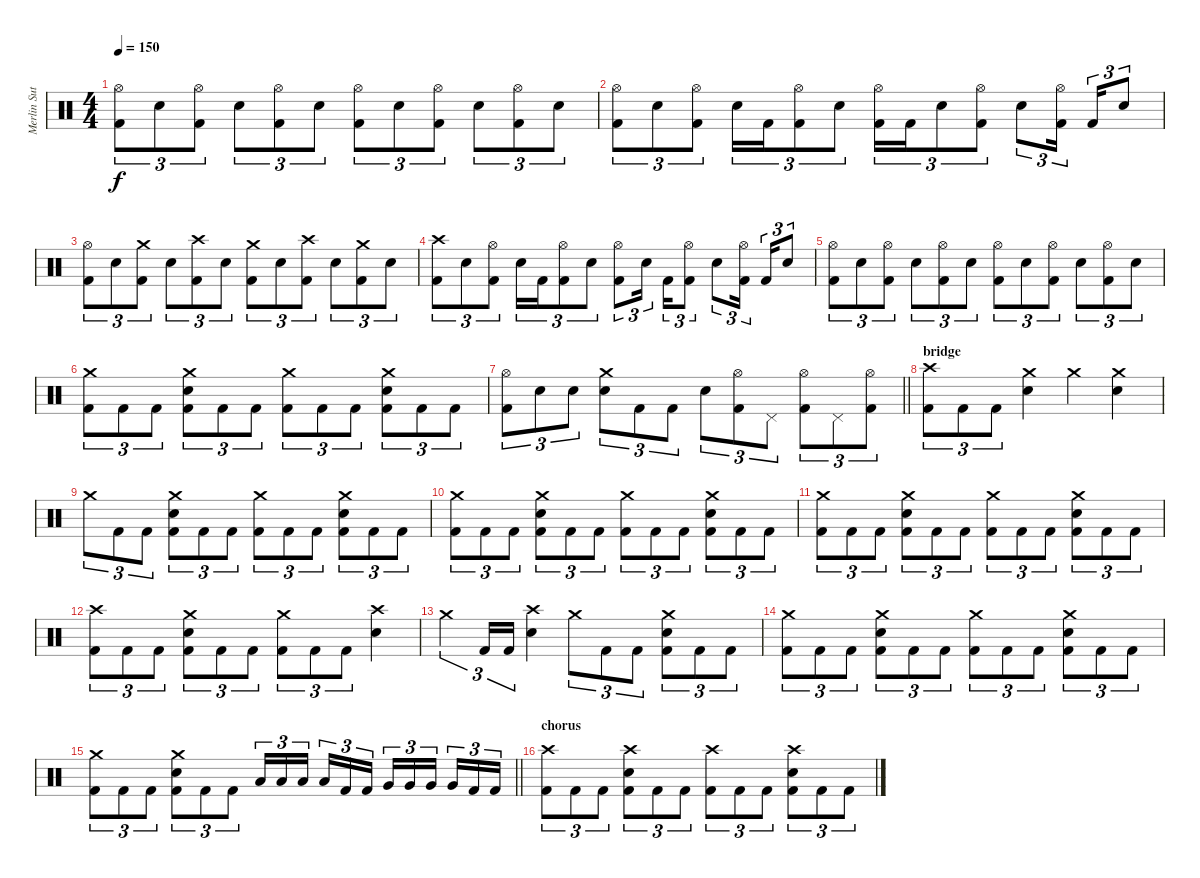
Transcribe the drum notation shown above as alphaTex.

\track ("Merlin Sutter" "Merlin Sut") {instrument percussion}
\staff {score}
\articulation defaults
\ts (4 4)
\tempo 150
\clef neutral
\ks c
("Hi-Hat (open)" "Kick (hit) 2").8{tu (3 2) dy f} "Snare (hit) 2".8{tu (3 2)} ("Hi-Hat (open)" "Kick (hit) 2").8{tu (3 2)} "Snare (hit) 2".8{tu (3 2)} ("Hi-Hat (open)" "Kick (hit) 2").8{tu (3 2)} "Snare (hit) 2".8{tu (3 2)} ("Hi-Hat (open)" "Kick (hit) 2").8{tu (3 2)} "Snare (hit) 2".8{tu (3 2)} ("Hi-Hat (open)" "Kick (hit) 2").8{tu (3 2)} "Snare (hit) 2".8{tu (3 2)} ("Hi-Hat (open)" "Kick (hit) 2").8{tu (3 2)} "Snare (hit) 2".8{tu (3 2)} |
("Hi-Hat (open)" "Kick (hit) 2").8{tu (3 2)} "Snare (hit) 2".8{tu (3 2)} ("Hi-Hat (open)" "Kick (hit) 2").8{tu (3 2)} "Snare (hit) 2".16{tu (3 2)} "Kick (hit) 2".16{tu (3 2)} ("Hi-Hat (open)" "Kick (hit) 2").8{tu (3 2)} "Snare (hit) 2".8{tu (3 2)} ("Hi-Hat (open)" "Kick (hit) 2").16{tu (3 2)} "Kick (hit) 2".16{tu (3 2)} "Snare (hit) 2".8{tu (3 2)} ("Hi-Hat (open)" "Kick (hit) 2").8{tu (3 2)} "Snare (hit) 2".8{tu (3 2)} ("Hi-Hat (open)" "Kick (hit) 2").16{tu (3 2) beam splitsecondary} "Kick (hit) 2".16{tu (3 2)} "Snare (hit) 2".8{tu (3 2)} |
("Hi-Hat (open)" "Kick (hit) 2").8{tu (3 2)} "Snare (hit) 2".8{tu (3 2)} ("Crash medium (hit)" "Kick (hit) 2").8{tu (3 2)} "Snare (hit) 2".8{tu (3 2)} ("Crash high (hit)" "Kick (hit) 2").8{tu (3 2)} "Snare (hit) 2".8{tu (3 2)} ("Crash medium (hit)" "Kick (hit) 2").8{tu (3 2)} "Snare (hit) 2".8{tu (3 2)} ("Crash high (hit)" "Kick (hit) 2").8{tu (3 2)} "Snare (hit) 2".8{tu (3 2)} ("Crash medium (hit)" "Kick (hit) 2").8{tu (3 2)} "Snare (hit) 2".8{tu (3 2)} |
("Crash high (hit)" "Kick (hit) 2").8{tu (3 2)} "Snare (hit) 2".8{tu (3 2)} ("Hi-Hat (open)" "Kick (hit) 2").8{tu (3 2)} "Snare (hit) 2".16{tu (3 2)} "Kick (hit) 2".16{tu (3 2)} ("Hi-Hat (open)" "Kick (hit) 2").8{tu (3 2)} "Snare (hit) 2".8{tu (3 2)} ("Hi-Hat (open)" "Kick (hit) 2").8{tu (3 2)} "Snare (hit) 2".16{tu (3 2) beam splitsecondary} "Kick (hit) 2".16{tu (3 2)} ("Hi-Hat (open)" "Kick (hit) 2").8{tu (3 2)} "Snare (hit) 2".8{tu (3 2)} ("Hi-Hat (open)" "Kick (hit) 2").16{tu (3 2) beam splitsecondary} "Kick (hit) 2".16{tu (3 2)} "Snare (hit) 2".8{tu (3 2)} |
("Hi-Hat (open)" "Kick (hit) 2").8{tu (3 2)} "Snare (hit) 2".8{tu (3 2)} ("Hi-Hat (open)" "Kick (hit) 2").8{tu (3 2)} "Snare (hit) 2".8{tu (3 2)} ("Hi-Hat (open)" "Kick (hit) 2").8{tu (3 2)} "Snare (hit) 2".8{tu (3 2)} ("Hi-Hat (open)" "Kick (hit) 2").8{tu (3 2)} "Snare (hit) 2".8{tu (3 2)} ("Hi-Hat (open)" "Kick (hit) 2").8{tu (3 2)} "Snare (hit) 2".8{tu (3 2)} ("Hi-Hat (open)" "Kick (hit) 2").8{tu (3 2)} "Snare (hit) 2".8{tu (3 2)} |
("Crash medium (hit)" "Kick (hit) 2").8{tu (3 2)} "Kick (hit) 2".8{tu (3 2)} "Kick (hit) 2".8{tu (3 2)} ("Crash medium (hit)" "Snare (hit) 2" "Kick (hit) 2").8{tu (3 2)} "Kick (hit) 2".8{tu (3 2)} "Kick (hit) 2".8{tu (3 2)} ("Crash medium (hit)" "Kick (hit) 2").8{tu (3 2)} "Kick (hit) 2".8{tu (3 2)} "Kick (hit) 2".8{tu (3 2)} ("Crash medium (hit)" "Snare (hit) 2" "Kick (hit) 2").8{tu (3 2)} "Kick (hit) 2".8{tu (3 2)} "Kick (hit) 2".8{tu (3 2)} |
\barLineRight lightlight
("Hi-Hat (open)" "Kick (hit) 2").8{tu (3 2)} "Snare (hit) 2".8{tu (3 2)} "Snare (hit) 2".8{tu (3 2)} ("Crash medium (hit)" "Snare (hit) 2").8{tu (3 2)} "Kick (hit) 2".8{tu (3 2)} "Kick (hit) 2".8{tu (3 2)} "Snare (hit) 2".8{tu (3 2)} ("Hi-Hat (open)" "Kick (hit) 2").8{tu (3 2)} "Pedal Hi-Hat (hit)".8{tu (3 2)} ("Hi-Hat (open)" "Kick (hit) 2").8{tu (3 2)} "Pedal Hi-Hat (hit)".8{tu (3 2)} ("Hi-Hat (open)" "Kick (hit) 2").8{tu (3 2)} |
\section ("" "bridge")
("Crash high (hit)" "Kick (hit) 2").8{tu (3 2)} "Kick (hit) 2".8{tu (3 2)} "Kick (hit) 2".8{tu (3 2)} ("Crash medium (hit)" "Snare (hit) 2").4 "Crash medium (hit)".4 ("Crash medium (hit)" "Snare (hit) 2").4 |
"Crash medium (hit)".8{tu (3 2)} "Kick (hit) 2".8{tu (3 2)} "Kick (hit) 2".8{tu (3 2)} ("Crash medium (hit)" "Snare (hit) 2" "Kick (hit) 2").8{tu (3 2)} "Kick (hit) 2".8{tu (3 2)} "Kick (hit) 2".8{tu (3 2)} ("Crash medium (hit)" "Kick (hit) 2").8{tu (3 2)} "Kick (hit) 2".8{tu (3 2)} "Kick (hit) 2".8{tu (3 2)} ("Crash medium (hit)" "Snare (hit) 2" "Kick (hit) 2").8{tu (3 2)} "Kick (hit) 2".8{tu (3 2)} "Kick (hit) 2".8{tu (3 2)} |
("Crash medium (hit)" "Kick (hit) 2").8{tu (3 2)} "Kick (hit) 2".8{tu (3 2)} "Kick (hit) 2".8{tu (3 2)} ("Crash medium (hit)" "Snare (hit) 2" "Kick (hit) 2").8{tu (3 2)} "Kick (hit) 2".8{tu (3 2)} "Kick (hit) 2".8{tu (3 2)} ("Crash medium (hit)" "Kick (hit) 2").8{tu (3 2)} "Kick (hit) 2".8{tu (3 2)} "Kick (hit) 2".8{tu (3 2)} ("Crash medium (hit)" "Snare (hit) 2" "Kick (hit) 2").8{tu (3 2)} "Kick (hit) 2".8{tu (3 2)} "Kick (hit) 2".8{tu (3 2)} |
("Crash medium (hit)" "Kick (hit) 2").8{tu (3 2)} "Kick (hit) 2".8{tu (3 2)} "Kick (hit) 2".8{tu (3 2)} ("Crash medium (hit)" "Snare (hit) 2" "Kick (hit) 2").8{tu (3 2)} "Kick (hit) 2".8{tu (3 2)} "Kick (hit) 2".8{tu (3 2)} ("Crash medium (hit)" "Kick (hit) 2").8{tu (3 2)} "Kick (hit) 2".8{tu (3 2)} "Kick (hit) 2".8{tu (3 2)} ("Crash medium (hit)" "Snare (hit) 2" "Kick (hit) 2").8{tu (3 2)} "Kick (hit) 2".8{tu (3 2)} "Kick (hit) 2".8{tu (3 2)} |
("Crash high (hit)" "Kick (hit) 2").8{tu (3 2)} "Kick (hit) 2".8{tu (3 2)} "Kick (hit) 2".8{tu (3 2)} ("Crash medium (hit)" "Snare (hit) 2" "Kick (hit) 2").8{tu (3 2)} "Kick (hit) 2".8{tu (3 2)} "Kick (hit) 2".8{tu (3 2)} ("Crash medium (hit)" "Kick (hit) 2").8{tu (3 2)} "Kick (hit) 2".8{tu (3 2)} "Kick (hit) 2".8{tu (3 2)} ("Crash high (hit)" "Snare (hit) 2").4 |
"Crash medium (hit)".4{tu (3 2)} "Kick (hit) 2".16{tu (3 2)} "Kick (hit) 2".16{tu (3 2)} ("Crash high (hit)" "Snare (hit) 2").4 "Crash medium (hit)".8{tu (3 2)} "Kick (hit) 2".8{tu (3 2)} "Kick (hit) 2".8{tu (3 2)} ("Crash medium (hit)" "Snare (hit) 2" "Kick (hit) 2").8{tu (3 2)} "Kick (hit) 2".8{tu (3 2)} "Kick (hit) 2".8{tu (3 2)} |
("Crash medium (hit)" "Kick (hit) 2").8{tu (3 2)} "Kick (hit) 2".8{tu (3 2)} "Kick (hit) 2".8{tu (3 2)} ("Crash medium (hit)" "Snare (hit) 2" "Kick (hit) 2").8{tu (3 2)} "Kick (hit) 2".8{tu (3 2)} "Kick (hit) 2".8{tu (3 2)} ("Crash medium (hit)" "Kick (hit) 2").8{tu (3 2)} "Kick (hit) 2".8{tu (3 2)} "Kick (hit) 2".8{tu (3 2)} ("Crash medium (hit)" "Snare (hit) 2" "Kick (hit) 2").8{tu (3 2)} "Kick (hit) 2".8{tu (3 2)} "Kick (hit) 2".8{tu (3 2)} |
\barLineRight lightlight
("Crash medium (hit)" "Kick (hit) 2").8{tu (3 2)} "Kick (hit) 2".8{tu (3 2)} "Kick (hit) 2".8{tu (3 2)} ("Crash medium (hit)" "Snare (hit) 2" "Kick (hit) 2").8{tu (3 2)} "Kick (hit) 2".8{tu (3 2)} "Kick (hit) 2".8{tu (3 2)} "Low Tom (hit)".16{tu (3 2)} "Low Tom (hit)".16{tu (3 2)} "Low Tom (hit)".16{tu (3 2) beam splitsecondary} "Low Tom (hit)".16{tu (3 2)} "Kick (hit) 2".16{tu (3 2)} "Kick (hit) 2".16{tu (3 2)} "Very Low Tom (hit)".16{tu (3 2)} "Very Low Tom (hit)".16{tu (3 2)} "Very Low Tom (hit)".16{tu (3 2) beam splitsecondary} "Very Low Tom (hit)".16{tu (3 2)} "Kick (hit) 2".16{tu (3 2)} "Kick (hit) 2".16{tu (3 2)} |
\section ("" "chorus")
("Crash high (hit)" "Kick (hit) 2").8{tu (3 2)} "Kick (hit) 2".8{tu (3 2)} "Kick (hit) 2".8{tu (3 2)} ("Crash high (hit)" "Snare (hit) 2" "Kick (hit) 2").8{tu (3 2)} "Kick (hit) 2".8{tu (3 2)} "Kick (hit) 2".8{tu (3 2)} ("Crash high (hit)" "Kick (hit) 2").8{tu (3 2)} "Kick (hit) 2".8{tu (3 2)} "Kick (hit) 2".8{tu (3 2)} ("Crash high (hit)" "Snare (hit) 2" "Kick (hit) 2").8{tu (3 2)} "Kick (hit) 2".8{tu (3 2)} "Kick (hit) 2".8{tu (3 2)}
